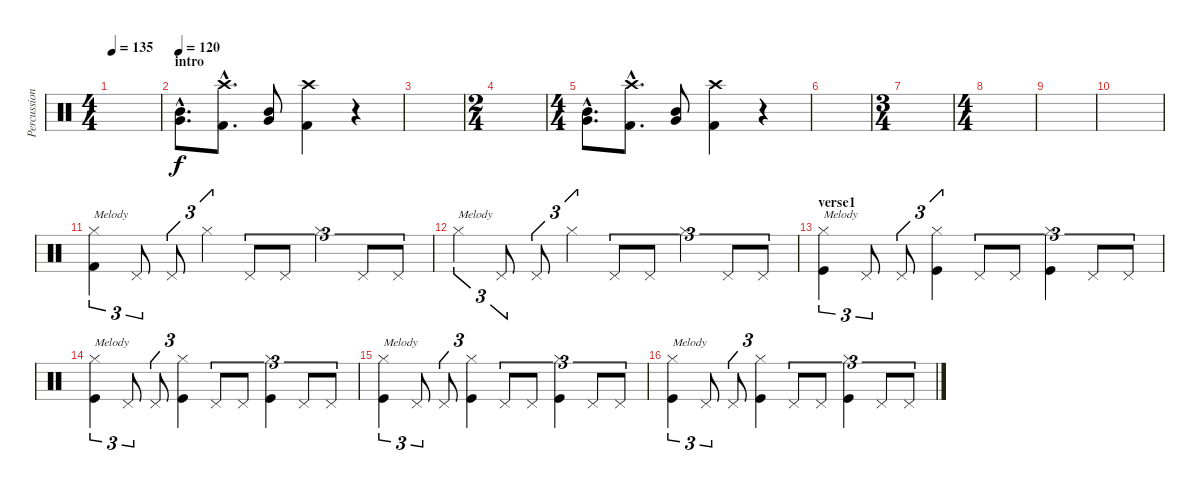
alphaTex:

\track ("Percussions" "Percussion") {instrument percussion}
\staff {score}
\articulation defaults
\ts (4 4)
\tempo 135
\clef neutral
\ks c
|
\section ("" "intro")
\tempo 120
("Mid Tom (hit)"{hac} "Very Low Tom (hit)"{hac}).8{d} ("Crash high (hit)"{hac} "Kick (hit) 2"{hac}).8{d} ("Mid Tom (hit)" "Very Low Tom (hit)").8 ("Crash high (hit)" "Kick (hit) 2").4 r.4 |
|
\ts (2 4)
|
\ts (4 4)
("Mid Tom (hit)"{hac} "Very Low Tom (hit)"{hac}).8{d} ("Crash high (hit)"{hac} "Kick (hit) 2"{hac}).8{d} ("Mid Tom (hit)" "Very Low Tom (hit)").8 ("Crash high (hit)" "Kick (hit) 2").4 r.4 |
|
\ts (3 4)
|
\ts (4 4)
|
|
|
("Hi-Hat (closed)" "Kick (hit) 2").4{tu (3 2) txt "Melody"} "Pedal Hi-Hat (hit)".8{tu (3 2)} "Pedal Hi-Hat (hit)".8{tu (3 2)} "Hi-Hat (closed)".4{tu (3 2)} "Pedal Hi-Hat (hit)".8{tu (3 2)} "Pedal Hi-Hat (hit)".8{tu (3 2)} "Hi-Hat (closed)".4{tu (3 2)} "Pedal Hi-Hat (hit)".8{tu (3 2)} "Pedal Hi-Hat (hit)".8{tu (3 2)} |
"Hi-Hat (closed)".4{tu (3 2) txt "Melody"} "Pedal Hi-Hat (hit)".8{tu (3 2)} "Pedal Hi-Hat (hit)".8{tu (3 2)} "Hi-Hat (closed)".4{tu (3 2)} "Pedal Hi-Hat (hit)".8{tu (3 2)} "Pedal Hi-Hat (hit)".8{tu (3 2)} "Hi-Hat (closed)".4{tu (3 2)} "Pedal Hi-Hat (hit)".8{tu (3 2)} "Pedal Hi-Hat (hit)".8{tu (3 2)} |
\section ("" "verse1")
("Hi-Hat (closed)" "Kick (hit)").4{tu (3 2) txt "Melody"} "Pedal Hi-Hat (hit)".8{tu (3 2)} "Pedal Hi-Hat (hit)".8{tu (3 2)} ("Hi-Hat (closed)" "Kick (hit)").4{tu (3 2)} "Pedal Hi-Hat (hit)".8{tu (3 2)} "Pedal Hi-Hat (hit)".8{tu (3 2)} ("Hi-Hat (closed)" "Kick (hit)").4{tu (3 2)} "Pedal Hi-Hat (hit)".8{tu (3 2)} "Pedal Hi-Hat (hit)".8{tu (3 2)} |
("Hi-Hat (closed)" "Kick (hit)").4{tu (3 2) txt "Melody"} "Pedal Hi-Hat (hit)".8{tu (3 2)} "Pedal Hi-Hat (hit)".8{tu (3 2)} ("Hi-Hat (closed)" "Kick (hit)").4{tu (3 2)} "Pedal Hi-Hat (hit)".8{tu (3 2)} "Pedal Hi-Hat (hit)".8{tu (3 2)} ("Hi-Hat (closed)" "Kick (hit)").4{tu (3 2)} "Pedal Hi-Hat (hit)".8{tu (3 2)} "Pedal Hi-Hat (hit)".8{tu (3 2)} |
("Hi-Hat (closed)" "Kick (hit)").4{tu (3 2) txt "Melody"} "Pedal Hi-Hat (hit)".8{tu (3 2)} "Pedal Hi-Hat (hit)".8{tu (3 2)} ("Hi-Hat (closed)" "Kick (hit)").4{tu (3 2)} "Pedal Hi-Hat (hit)".8{tu (3 2)} "Pedal Hi-Hat (hit)".8{tu (3 2)} ("Hi-Hat (closed)" "Kick (hit)").4{tu (3 2)} "Pedal Hi-Hat (hit)".8{tu (3 2)} "Pedal Hi-Hat (hit)".8{tu (3 2)} |
("Hi-Hat (closed)" "Kick (hit)").4{tu (3 2) txt "Melody"} "Pedal Hi-Hat (hit)".8{tu (3 2)} "Pedal Hi-Hat (hit)".8{tu (3 2)} ("Hi-Hat (closed)" "Kick (hit)").4{tu (3 2)} "Pedal Hi-Hat (hit)".8{tu (3 2)} "Pedal Hi-Hat (hit)".8{tu (3 2)} ("Hi-Hat (closed)" "Kick (hit)").4{tu (3 2)} "Pedal Hi-Hat (hit)".8{tu (3 2)} "Pedal Hi-Hat (hit)".8{tu (3 2)}
